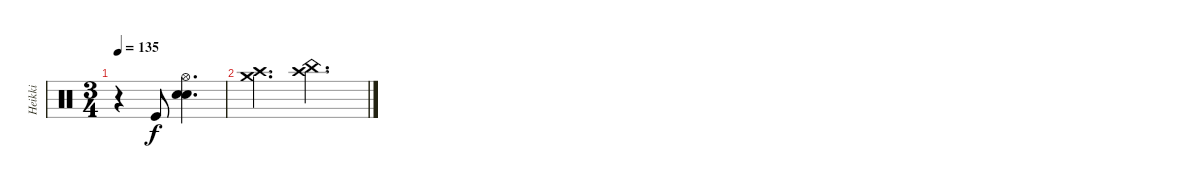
\track ("Heikki" "Heikki") {instrument percussion}
\staff {score}
\articulation defaults
\ts (3 4)
\tempo 135
\clef neutral
\ks c
r.4{dy f} "Kick (hit)".8 ("Hi-Hat (open)" "Snare (hit)" "Snare (hit) 2").4{d} |
("Crash high (hit)" "Crash medium (hit)").4{d} ("Crash high (hit)" "China (hit)").4{d}
